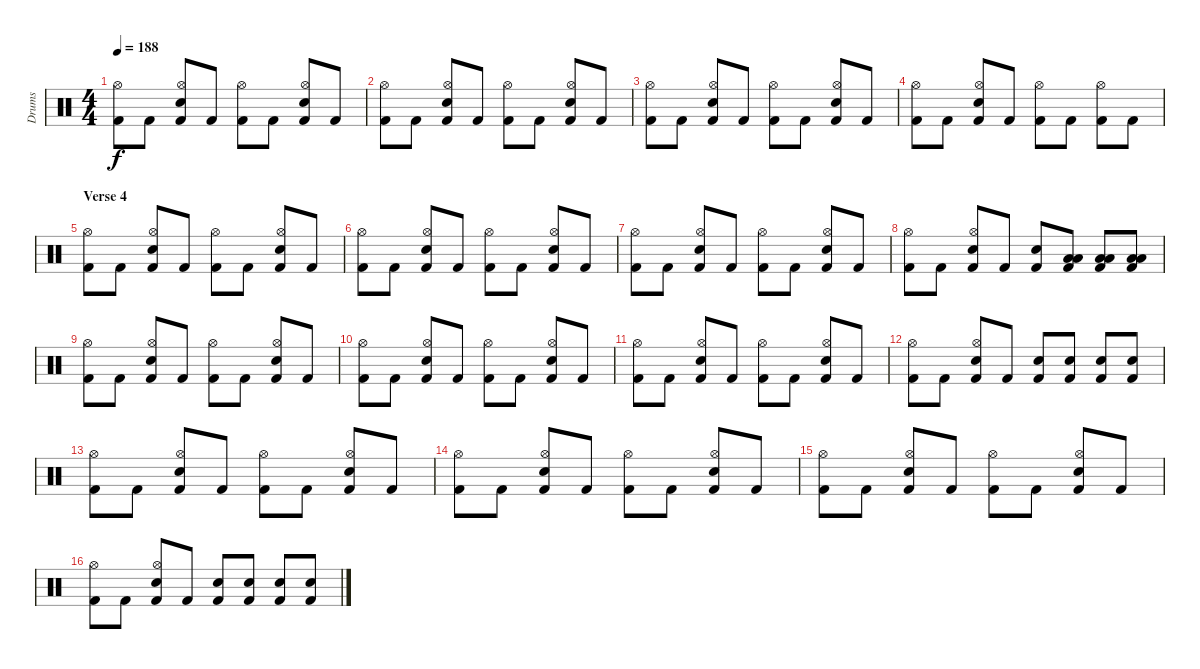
\track ("Drums" "Drums") {instrument percussion}
\staff {score}
\articulation defaults
\ts (4 4)
\tempo 188
\clef neutral
\ks c
("Kick (hit) 2" "Hi-Hat (open)").8{dy f} "Kick (hit) 2".8 ("Kick (hit) 2" "Snare (hit) 2" "Hi-Hat (open)").8 "Kick (hit) 2".8 ("Kick (hit) 2" "Hi-Hat (open)").8 "Kick (hit) 2".8 ("Kick (hit) 2" "Snare (hit) 2" "Hi-Hat (open)").8 "Kick (hit) 2".8 |
("Kick (hit) 2" "Hi-Hat (open)").8 "Kick (hit) 2".8 ("Kick (hit) 2" "Snare (hit) 2" "Hi-Hat (open)").8 "Kick (hit) 2".8 ("Kick (hit) 2" "Hi-Hat (open)").8 "Kick (hit) 2".8 ("Kick (hit) 2" "Snare (hit) 2" "Hi-Hat (open)").8 "Kick (hit) 2".8 |
("Kick (hit) 2" "Hi-Hat (open)").8 "Kick (hit) 2".8 ("Kick (hit) 2" "Snare (hit) 2" "Hi-Hat (open)").8 "Kick (hit) 2".8 ("Kick (hit) 2" "Hi-Hat (open)").8 "Kick (hit) 2".8 ("Kick (hit) 2" "Snare (hit) 2" "Hi-Hat (open)").8 "Kick (hit) 2".8 |
("Kick (hit) 2" "Hi-Hat (open)").8 "Kick (hit) 2".8 ("Kick (hit) 2" "Snare (hit) 2" "Hi-Hat (open)").8 "Kick (hit) 2".8 ("Kick (hit) 2" "Hi-Hat (open)").8 "Kick (hit) 2".8 ("Kick (hit) 2" "Hi-Hat (open)").8 "Kick (hit) 2".8 |
\section ("" "Verse 4")
("Kick (hit) 2" "Hi-Hat (open)").8 "Kick (hit) 2".8 ("Kick (hit) 2" "Snare (hit) 2" "Hi-Hat (open)").8 "Kick (hit) 2".8 ("Kick (hit) 2" "Hi-Hat (open)").8 "Kick (hit) 2".8 ("Kick (hit) 2" "Snare (hit) 2" "Hi-Hat (open)").8 "Kick (hit) 2".8 |
("Kick (hit) 2" "Hi-Hat (open)").8 "Kick (hit) 2".8 ("Kick (hit) 2" "Snare (hit) 2" "Hi-Hat (open)").8 "Kick (hit) 2".8 ("Kick (hit) 2" "Hi-Hat (open)").8 "Kick (hit) 2".8 ("Kick (hit) 2" "Snare (hit) 2" "Hi-Hat (open)").8 "Kick (hit) 2".8 |
("Kick (hit) 2" "Hi-Hat (open)").8 "Kick (hit) 2".8 ("Kick (hit) 2" "Snare (hit) 2" "Hi-Hat (open)").8 "Kick (hit) 2".8 ("Kick (hit) 2" "Hi-Hat (open)").8 "Kick (hit) 2".8 ("Kick (hit) 2" "Snare (hit) 2" "Hi-Hat (open)").8 "Kick (hit) 2".8 |
("Kick (hit) 2" "Hi-Hat (open)").8 "Kick (hit) 2".8 ("Kick (hit) 2" "Snare (hit) 2" "Hi-Hat (open)").8 "Kick (hit) 2".8 ("Kick (hit) 2" "Snare (hit) 2").8 ("Kick (hit) 2" "Low Tom (hit)" "Low Tom (hit)").8 ("Kick (hit) 2" "Low Tom (hit)" "Low Tom (hit)").8 ("Kick (hit) 2" "Low Tom (hit)" "Low Tom (hit)").8 |
("Kick (hit) 2" "Hi-Hat (open)").8 "Kick (hit) 2".8 ("Kick (hit) 2" "Snare (hit) 2" "Hi-Hat (open)").8 "Kick (hit) 2".8 ("Kick (hit) 2" "Hi-Hat (open)").8 "Kick (hit) 2".8 ("Kick (hit) 2" "Snare (hit) 2" "Hi-Hat (open)").8 "Kick (hit) 2".8 |
("Kick (hit) 2" "Hi-Hat (open)").8 "Kick (hit) 2".8 ("Kick (hit) 2" "Snare (hit) 2" "Hi-Hat (open)").8 "Kick (hit) 2".8 ("Kick (hit) 2" "Hi-Hat (open)").8 "Kick (hit) 2".8 ("Kick (hit) 2" "Snare (hit) 2" "Hi-Hat (open)").8 "Kick (hit) 2".8 |
("Kick (hit) 2" "Hi-Hat (open)").8 "Kick (hit) 2".8 ("Kick (hit) 2" "Snare (hit) 2" "Hi-Hat (open)").8 "Kick (hit) 2".8 ("Kick (hit) 2" "Hi-Hat (open)").8 "Kick (hit) 2".8 ("Kick (hit) 2" "Snare (hit) 2" "Hi-Hat (open)").8 "Kick (hit) 2".8 |
("Kick (hit) 2" "Hi-Hat (open)").8 "Kick (hit) 2".8 ("Kick (hit) 2" "Snare (hit) 2" "Hi-Hat (open)").8 "Kick (hit) 2".8 ("Kick (hit) 2" "Snare (hit) 2").8 ("Kick (hit) 2" "Snare (hit) 2").8 ("Kick (hit) 2" "Snare (hit) 2").8 ("Kick (hit) 2" "Snare (hit) 2").8 |
("Kick (hit) 2" "Hi-Hat (open)").8 "Kick (hit) 2".8 ("Kick (hit) 2" "Snare (hit) 2" "Hi-Hat (open)").8 "Kick (hit) 2".8 ("Kick (hit) 2" "Hi-Hat (open)").8 "Kick (hit) 2".8 ("Kick (hit) 2" "Snare (hit) 2" "Hi-Hat (open)").8 "Kick (hit) 2".8 |
("Kick (hit) 2" "Hi-Hat (open)").8 "Kick (hit) 2".8 ("Kick (hit) 2" "Snare (hit) 2" "Hi-Hat (open)").8 "Kick (hit) 2".8 ("Kick (hit) 2" "Hi-Hat (open)").8 "Kick (hit) 2".8 ("Kick (hit) 2" "Snare (hit) 2" "Hi-Hat (open)").8 "Kick (hit) 2".8 |
("Kick (hit) 2" "Hi-Hat (open)").8 "Kick (hit) 2".8 ("Kick (hit) 2" "Snare (hit) 2" "Hi-Hat (open)").8 "Kick (hit) 2".8 ("Kick (hit) 2" "Hi-Hat (open)").8 "Kick (hit) 2".8 ("Kick (hit) 2" "Snare (hit) 2" "Hi-Hat (open)").8 "Kick (hit) 2".8 |
("Kick (hit) 2" "Hi-Hat (open)").8 "Kick (hit) 2".8 ("Kick (hit) 2" "Snare (hit) 2" "Hi-Hat (open)").8 "Kick (hit) 2".8 ("Kick (hit) 2" "Snare (hit) 2").8 ("Kick (hit) 2" "Snare (hit) 2").8 ("Kick (hit) 2" "Snare (hit) 2").8 ("Kick (hit) 2" "Snare (hit) 2").8
